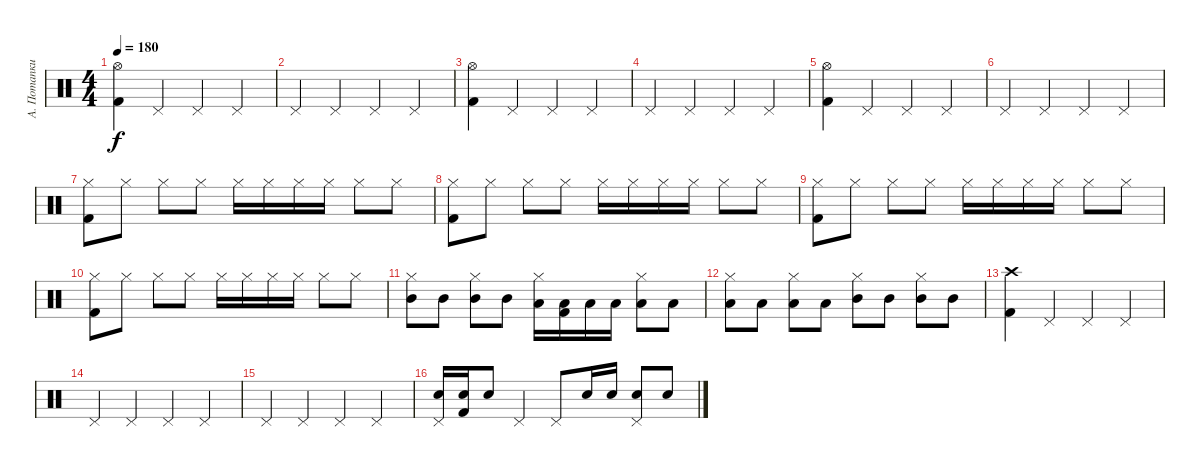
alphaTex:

\track ("А. Потапкин" "А. Потапки") {instrument percussion}
\staff {score}
\articulation defaults
\ts (4 4)
\tempo 180
\clef neutral
\ks c
("Hi-Hat (open)" "Kick (hit) 2").4{dy f} "Pedal Hi-Hat (hit)".4 "Pedal Hi-Hat (hit)".4 "Pedal Hi-Hat (hit)".4 |
"Pedal Hi-Hat (hit)".4 "Pedal Hi-Hat (hit)".4 "Pedal Hi-Hat (hit)".4 "Pedal Hi-Hat (hit)".4 |
("Hi-Hat (open)" "Kick (hit) 2").4 "Pedal Hi-Hat (hit)".4 "Pedal Hi-Hat (hit)".4 "Pedal Hi-Hat (hit)".4 |
"Pedal Hi-Hat (hit)".4 "Pedal Hi-Hat (hit)".4 "Pedal Hi-Hat (hit)".4 "Pedal Hi-Hat (hit)".4 |
("Hi-Hat (open)" "Kick (hit) 2").4 "Pedal Hi-Hat (hit)".4 "Pedal Hi-Hat (hit)".4 "Pedal Hi-Hat (hit)".4 |
"Pedal Hi-Hat (hit)".4 "Pedal Hi-Hat (hit)".4 "Pedal Hi-Hat (hit)".4 "Pedal Hi-Hat (hit)".4 |
("Hi-Hat (closed)" "Kick (hit) 2").8 "Hi-Hat (closed)".8 "Hi-Hat (closed)".8 "Hi-Hat (closed)".8 "Hi-Hat (closed)".16 "Hi-Hat (closed)".16 "Hi-Hat (closed)".16 "Hi-Hat (closed)".16 "Hi-Hat (closed)".8 "Hi-Hat (closed)".8 |
("Hi-Hat (closed)" "Kick (hit) 2").8 "Hi-Hat (closed)".8 "Hi-Hat (closed)".8 "Hi-Hat (closed)".8 "Hi-Hat (closed)".16 "Hi-Hat (closed)".16 "Hi-Hat (closed)".16 "Hi-Hat (closed)".16 "Hi-Hat (closed)".8 "Hi-Hat (closed)".8 |
("Hi-Hat (closed)" "Kick (hit) 2").8 "Hi-Hat (closed)".8 "Hi-Hat (closed)".8 "Hi-Hat (closed)".8 "Hi-Hat (closed)".16 "Hi-Hat (closed)".16 "Hi-Hat (closed)".16 "Hi-Hat (closed)".16 "Hi-Hat (closed)".8 "Hi-Hat (closed)".8 |
("Hi-Hat (closed)" "Kick (hit) 2").8 "Hi-Hat (closed)".8 "Hi-Hat (closed)".8 "Hi-Hat (closed)".8 "Hi-Hat (closed)".16 "Hi-Hat (closed)".16 "Hi-Hat (closed)".16 "Hi-Hat (closed)".16 "Hi-Hat (closed)".8 "Hi-Hat (closed)".8 |
("Hi-Hat (closed)" "Mid Tom (hit)").8 "Mid Tom (hit)".8 ("Hi-Hat (closed)" "Mid Tom (hit)").8 "Mid Tom (hit)".8 ("Hi-Hat (closed)" "Low Tom (hit)").16 ("Low Tom (hit)" "Kick (hit) 2").16 "Low Tom (hit)".16 "Low Tom (hit)".16 ("Hi-Hat (closed)" "Low Tom (hit)").8 "Low Tom (hit)".8 |
("Hi-Hat (closed)" "Low Floor Tom (hit)").8 "Low Floor Tom (hit)".8 ("Hi-Hat (closed)" "Low Floor Tom (hit)").8 "Low Floor Tom (hit)".8 ("Hi-Hat (closed)" "Mid Tom (hit)").8 "Mid Tom (hit)".8 ("Hi-Hat (closed)" "Mid Tom (hit)").8 "Mid Tom (hit)".8 |
("Crash high (hit)" "Kick (hit) 2").4 "Pedal Hi-Hat (hit)".4 "Pedal Hi-Hat (hit)".4 "Pedal Hi-Hat (hit)".4 |
"Pedal Hi-Hat (hit)".4 "Pedal Hi-Hat (hit)".4 "Pedal Hi-Hat (hit)".4 "Pedal Hi-Hat (hit)".4 |
"Pedal Hi-Hat (hit)".4 "Pedal Hi-Hat (hit)".4 "Pedal Hi-Hat (hit)".4 "Pedal Hi-Hat (hit)".4 |
("Electric Snare (hit)" "Pedal Hi-Hat (hit)").16 ("Electric Snare (hit)" "Kick (hit) 2").16 "Electric Snare (hit)".8 "Pedal Hi-Hat (hit)".4 "Pedal Hi-Hat (hit)".8 "Electric Snare (hit)".16 "Electric Snare (hit)".16 ("Electric Snare (hit)" "Pedal Hi-Hat (hit)").8 "Electric Snare (hit)".8
